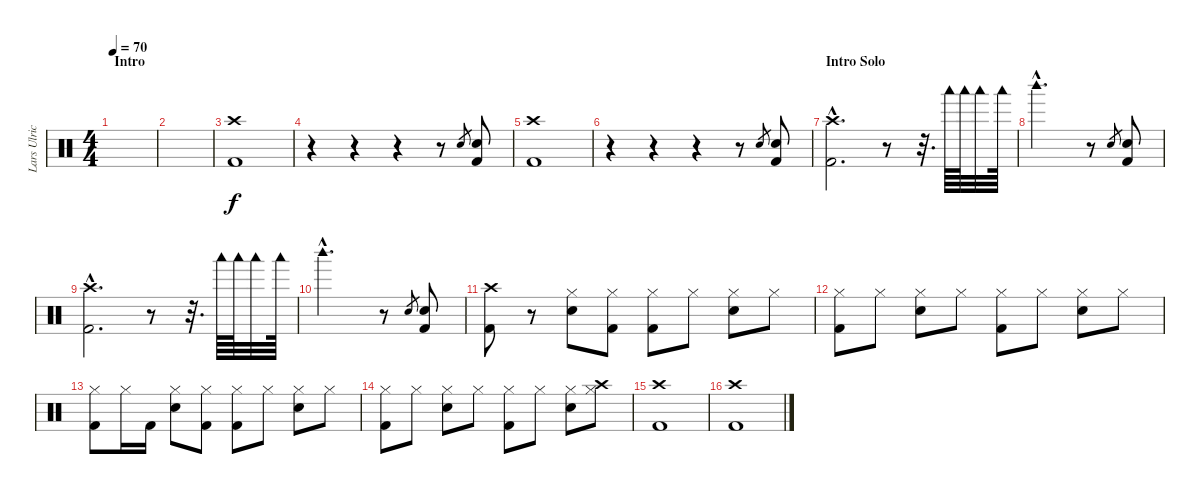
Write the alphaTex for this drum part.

\track ("Lars Ulrich (Drums)" "Lars Ulric") {instrument percussion}
\staff {score}
\articulation defaults
\ts (4 4)
\section ("" "Intro")
\tempo 70
\clef neutral
\ks c
|
|
("Crash high (hit)" "Kick (hit) 2").1 |
r.4 r.4 r.4 r.8 "Snare (hit) 2".8{gr} ("Electric Snare (hit)" "Kick (hit) 2").8 |
("Crash high (hit)" "Kick (hit) 2").1 |
r.4 r.4 r.4 r.8 "Snare (hit) 2".8{gr} ("Electric Snare (hit)" "Kick (hit) 2").8 |
\section ("" "Intro Solo")
("Crash high (hit)"{hac} "Kick (hit) 2"{hac}).2{d} r.8 r.32{d} "Woodblock low (hit)".64 "Woodblock low (hit)".64 "Woodblock low (hit)".32 "Woodblock low (hit)".64 |
"Woodblock high (hit)"{hac}.2{d} r.8 "Snare (hit) 2".8{gr} ("Electric Snare (hit)" "Kick (hit) 2").8 |
("Crash high (hit)"{hac} "Kick (hit) 2"{hac}).2{d} r.8 r.32{d} "Woodblock low (hit)".64 "Woodblock low (hit)".64 "Woodblock low (hit)".32 "Woodblock low (hit)".64 |
"Woodblock high (hit)"{hac}.2{d} r.8 "Snare (hit) 2".8{gr} ("Electric Snare (hit)" "Kick (hit) 2").8 |
("Crash high (hit)" "Kick (hit) 2").8 r.8 ("Electric Snare (hit)" "Hi-Hat (closed)").8 ("Hi-Hat (closed)" "Kick (hit) 2").8 ("Hi-Hat (closed)" "Kick (hit) 2").8 "Hi-Hat (closed)".8 ("Electric Snare (hit)" "Hi-Hat (closed)").8 "Hi-Hat (closed)".8 |
("Hi-Hat (closed)" "Kick (hit) 2").8 "Hi-Hat (closed)".8 ("Electric Snare (hit)" "Hi-Hat (closed)").8 "Hi-Hat (closed)".8 ("Hi-Hat (closed)" "Kick (hit) 2").8 "Hi-Hat (closed)".8 ("Electric Snare (hit)" "Hi-Hat (closed)").8 "Hi-Hat (closed)".8 |
("Hi-Hat (closed)" "Kick (hit) 2").8 "Hi-Hat (closed)".16 "Kick (hit) 2".16 ("Electric Snare (hit)" "Hi-Hat (closed)").8 ("Hi-Hat (closed)" "Kick (hit) 2").8 ("Hi-Hat (closed)" "Kick (hit) 2").8 "Hi-Hat (closed)".8 ("Electric Snare (hit)" "Hi-Hat (closed)").8 "Hi-Hat (closed)".8 |
("Hi-Hat (closed)" "Kick (hit) 2").8 "Hi-Hat (closed)".8 ("Electric Snare (hit)" "Hi-Hat (closed)").8 "Hi-Hat (closed)".8 ("Hi-Hat (closed)" "Kick (hit) 2").8 "Hi-Hat (closed)".8 ("Electric Snare (hit)" "Hi-Hat (closed)").8 ("Crash high (hit)" "Hi-Hat (closed)").8 |
("Crash high (hit)" "Kick (hit) 2").1 |
("Crash high (hit)" "Kick (hit) 2").1
